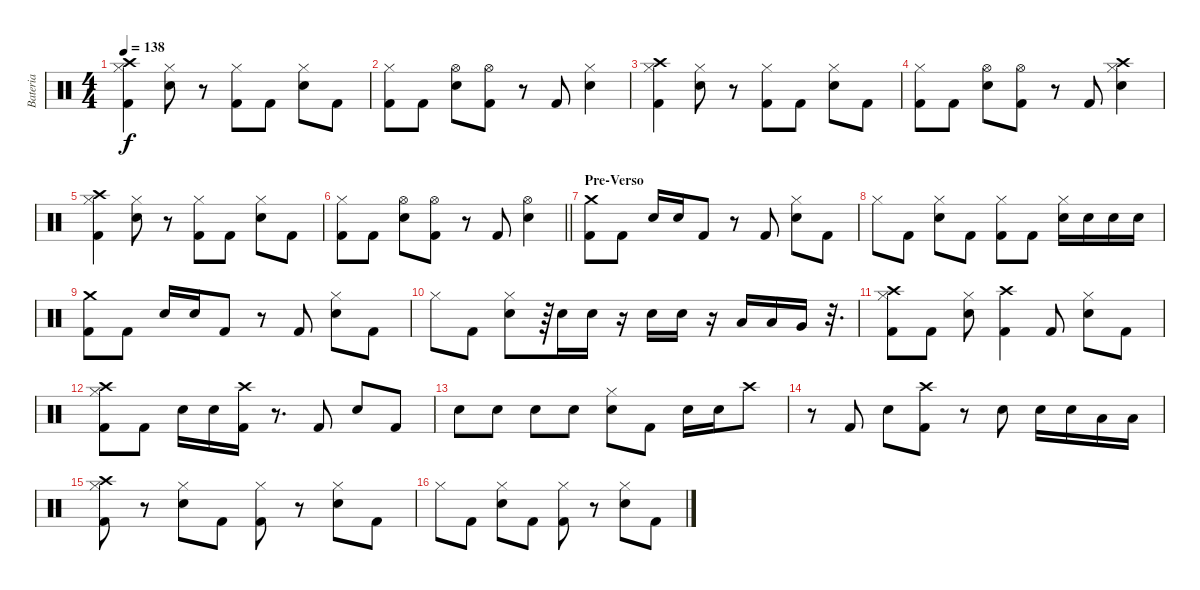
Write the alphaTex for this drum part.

\track ("Bateria" "Bateria") {instrument percussion}
\staff {score}
\articulation defaults
\ts (4 4)
\tempo 138
\clef neutral
\ks c
("Crash high (hit)" "Hi-Hat (closed)" "Kick (hit) 2").4{dy f} ("Hi-Hat (closed)" "Electric Snare (hit)").8 r.8 ("Hi-Hat (closed)" "Kick (hit) 2").8 "Kick (hit) 2".8 ("Hi-Hat (closed)" "Electric Snare (hit)").8 "Kick (hit) 2".8 |
("Hi-Hat (closed)" "Kick (hit) 2").8 "Kick (hit) 2".8 ("Hi-Hat (open)" "Electric Snare (hit)").8 ("Hi-Hat (open)" "Kick (hit) 2").8 r.8 "Kick (hit) 2".8 ("Hi-Hat (closed)" "Electric Snare (hit)").4 |
("Crash high (hit)" "Hi-Hat (closed)" "Kick (hit) 2").4 ("Hi-Hat (closed)" "Electric Snare (hit)").8 r.8 ("Hi-Hat (closed)" "Kick (hit) 2").8 "Kick (hit) 2".8 ("Hi-Hat (closed)" "Electric Snare (hit)").8 "Kick (hit) 2".8 |
("Hi-Hat (closed)" "Kick (hit) 2").8 "Kick (hit) 2".8 ("Hi-Hat (open)" "Electric Snare (hit)").8 ("Hi-Hat (open)" "Kick (hit) 2").8 r.8 "Kick (hit) 2".8 ("Crash high (hit)" "Hi-Hat (closed)" "Electric Snare (hit)").4 |
("Crash high (hit)" "Hi-Hat (closed)" "Kick (hit) 2").4 ("Hi-Hat (closed)" "Electric Snare (hit)").8 r.8 ("Hi-Hat (closed)" "Kick (hit) 2").8 "Kick (hit) 2".8 ("Hi-Hat (closed)" "Electric Snare (hit)").8 "Kick (hit) 2".8 |
\barLineRight lightlight
("Hi-Hat (closed)" "Kick (hit) 2").8 "Kick (hit) 2".8 ("Hi-Hat (open)" "Electric Snare (hit)").8 ("Hi-Hat (open)" "Kick (hit) 2").8 r.8 "Kick (hit) 2".8 ("Hi-Hat (open)" "Electric Snare (hit)").4 |
\section ("" "Pre-Verso")
("Crash medium (hit)" "Kick (hit) 2").8 "Kick (hit) 2".8 "Electric Snare (hit)".16 "Electric Snare (hit)".16 "Kick (hit) 2".8 r.8 "Kick (hit) 2".8 ("Hi-Hat (closed)" "Electric Snare (hit)").8 "Kick (hit) 2".8 |
"Hi-Hat (closed)".8 "Kick (hit) 2".8 ("Hi-Hat (closed)" "Electric Snare (hit)").8 "Kick (hit) 2".8 ("Hi-Hat (closed)" "Kick (hit) 2").8 "Kick (hit) 2".8 ("Hi-Hat (closed)" "Electric Snare (hit)").16 "Electric Snare (hit)".16 "Electric Snare (hit)".16 "Electric Snare (hit)".16 |
("Crash medium (hit)" "Kick (hit) 2").8 "Kick (hit) 2".8 "Electric Snare (hit)".16 "Electric Snare (hit)".16 "Kick (hit) 2".8 r.8 "Kick (hit) 2".8 ("Hi-Hat (closed)" "Electric Snare (hit)").8 "Kick (hit) 2".8 |
"Hi-Hat (closed)".8 "Kick (hit) 2".8 ("Hi-Hat (closed)" "Electric Snare (hit)").8 r.64 "Electric Snare (hit)".16 "Electric Snare (hit)".16 r.16 "Electric Snare (hit)".16 "Electric Snare (hit)".16 r.16 "Low Tom (hit)".16 "Low Tom (hit)".16 "Very Low Tom (hit)".16 r.32{d} |
("Crash high (hit)" "Hi-Hat (closed)" "Kick (hit) 2").8 "Kick (hit) 2".8 ("Hi-Hat (closed)" "Electric Snare (hit)").8 ("Crash high (hit)" "Kick (hit) 2").4 "Kick (hit) 2".8 ("Hi-Hat (closed)" "Electric Snare (hit)").8 "Kick (hit) 2".8 |
("Crash high (hit)" "Hi-Hat (closed)" "Kick (hit) 2").8 "Kick (hit) 2".8 "Electric Snare (hit)".16 "Electric Snare (hit)".16 ("Crash high (hit)" "Kick (hit) 2").16 r.8{d} "Kick (hit) 2".8 "Electric Snare (hit)".8 "Kick (hit) 2".8 |
"Electric Snare (hit)".8 "Electric Snare (hit)".8 "Electric Snare (hit)".8 "Electric Snare (hit)".8 ("Hi-Hat (closed)" "Electric Snare (hit)").8 "Kick (hit) 2".8 "Electric Snare (hit)".16 "Electric Snare (hit)".16 "Crash high (hit)".8 |
r.8 "Kick (hit) 2".8 "Electric Snare (hit)".8 ("Crash high (hit)" "Kick (hit) 2").8 r.8 "Electric Snare (hit)".8 "Electric Snare (hit)".16 "Electric Snare (hit)".16 "Low Tom (hit)".16 "Low Tom (hit)".16 |
("Crash high (hit)" "Hi-Hat (closed)" "Kick (hit) 2").8 r.8 ("Hi-Hat (closed)" "Electric Snare (hit)").8 "Kick (hit) 2".8 ("Hi-Hat (closed)" "Kick (hit) 2").8 r.8 ("Hi-Hat (closed)" "Electric Snare (hit)").8 "Kick (hit) 2".8 |
"Hi-Hat (closed)".8 "Kick (hit) 2".8 ("Hi-Hat (closed)" "Electric Snare (hit)").8 "Kick (hit) 2".8 ("Hi-Hat (closed)" "Kick (hit) 2").8 r.8 ("Hi-Hat (closed)" "Electric Snare (hit)").8 "Kick (hit) 2".8
